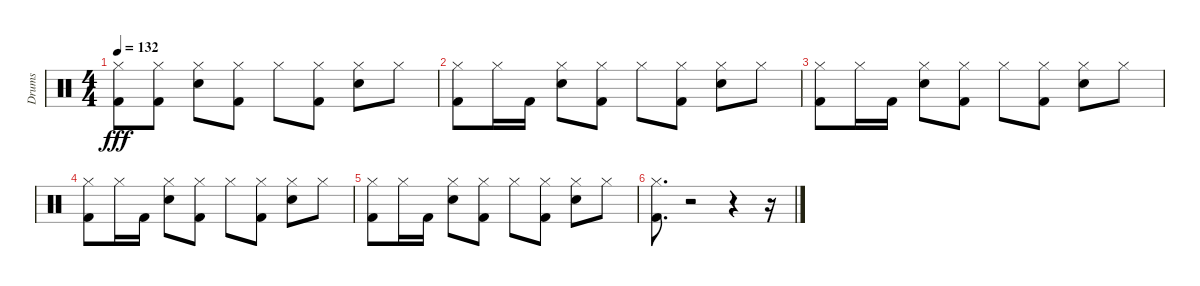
\track ("Drums" "Drums") {instrument percussion}
\staff {score}
\articulation defaults
\ts (4 4)
\tempo 132
\clef neutral
\ks c
("Hi-Hat (closed)" "Kick (hit) 2").8{dy fff} ("Hi-Hat (closed)" "Kick (hit) 2").8 ("Hi-Hat (closed)" "Electric Snare (hit)").8 ("Hi-Hat (closed)" "Kick (hit) 2").8 "Hi-Hat (closed)".8 ("Hi-Hat (closed)" "Kick (hit) 2").8 ("Hi-Hat (closed)" "Electric Snare (hit)").8 "Hi-Hat (closed)".8 |
("Hi-Hat (closed)" "Kick (hit) 2").8 "Hi-Hat (closed)".16 "Kick (hit) 2".16 ("Hi-Hat (closed)" "Electric Snare (hit)").8 ("Hi-Hat (closed)" "Kick (hit) 2").8 "Hi-Hat (closed)".8 ("Hi-Hat (closed)" "Kick (hit) 2").8 ("Hi-Hat (closed)" "Electric Snare (hit)").8 "Hi-Hat (closed)".8 |
("Kick (hit) 2" "Hi-Hat (closed)").8 "Hi-Hat (closed)".16 "Kick (hit) 2".16 ("Electric Snare (hit)" "Hi-Hat (closed)").8 ("Kick (hit) 2" "Hi-Hat (closed)").8 "Hi-Hat (closed)".8 ("Kick (hit) 2" "Hi-Hat (closed)").8 ("Electric Snare (hit)" "Hi-Hat (closed)").8 "Hi-Hat (closed)".8 |
("Hi-Hat (closed)" "Kick (hit) 2").8 "Hi-Hat (closed)".16 "Kick (hit) 2".16 ("Hi-Hat (closed)" "Electric Snare (hit)").8 ("Hi-Hat (closed)" "Kick (hit) 2").8 "Hi-Hat (closed)".8 ("Kick (hit) 2" "Hi-Hat (closed)").8 ("Hi-Hat (closed)" "Electric Snare (hit)").8 "Hi-Hat (closed)".8 |
("Hi-Hat (closed)" "Kick (hit) 2").8 "Hi-Hat (closed)".16 "Kick (hit) 2".16 ("Hi-Hat (closed)" "Electric Snare (hit)").8 ("Hi-Hat (closed)" "Kick (hit) 2").8 "Hi-Hat (closed)".8 ("Kick (hit) 2" "Hi-Hat (closed)").8 ("Hi-Hat (closed)" "Electric Snare (hit)").8 "Hi-Hat (closed)".8 |
("Hi-Hat (closed)" "Kick (hit) 2").8{d} r.2 r.4 r.16
